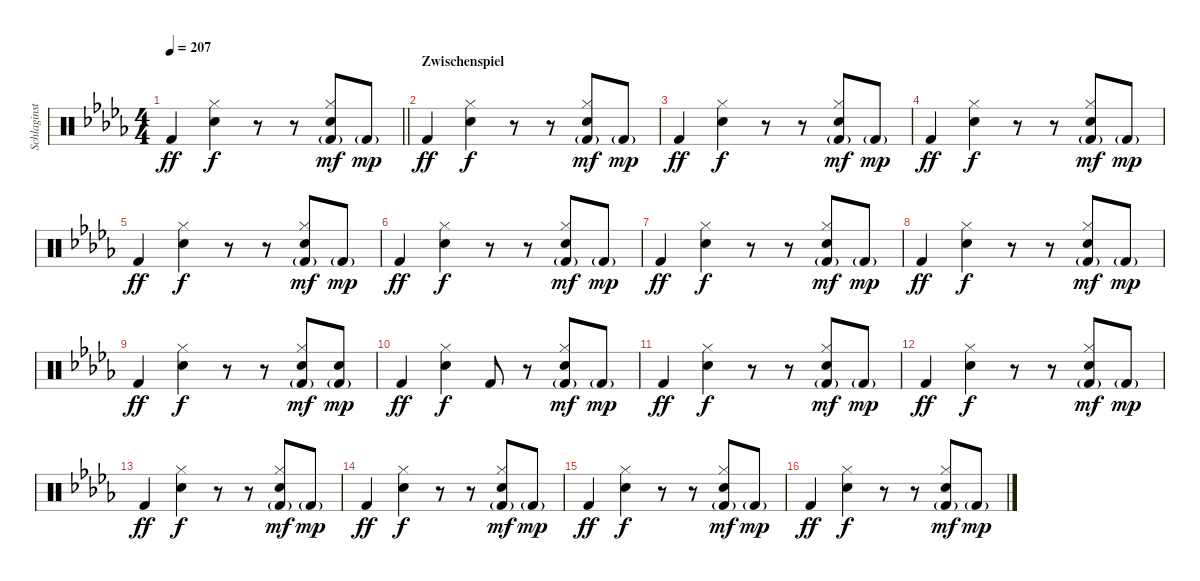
\track ("Schlaginstrumente - Auswahl" "Schlaginst") {instrument percussion}
\staff {score}
\articulation defaults
\ts (4 4)
\tempo 207
\clef neutral
\barLineRight lightlight
\ks bbminor "Kick (hit) 2".4{dy ff}
("Hi-Hat (closed)" "Snare (hit) 2").4{dy f} r.8 r.8 ("Hi-Hat (closed)" "Snare (hit) 2" "Kick (hit) 2"{g}).8{dy mf} "Kick (hit) 2"{g}.8{dy mp} |
\section ("" "Zwischenspiel")
"Kick (hit) 2".4{dy ff} ("Hi-Hat (closed)" "Snare (hit) 2").4{dy f} r.8 r.8 ("Hi-Hat (closed)" "Snare (hit) 2" "Kick (hit) 2"{g}).8{dy mf} "Kick (hit) 2"{g}.8{dy mp} |
"Kick (hit) 2".4{dy ff} ("Hi-Hat (closed)" "Snare (hit) 2").4{dy f} r.8 r.8 ("Hi-Hat (closed)" "Snare (hit) 2" "Kick (hit) 2"{g}).8{dy mf} "Kick (hit) 2"{g}.8{dy mp} |
"Kick (hit) 2".4{dy ff} ("Hi-Hat (closed)" "Snare (hit) 2").4{dy f} r.8 r.8 ("Hi-Hat (closed)" "Snare (hit) 2" "Kick (hit) 2"{g}).8{dy mf} "Kick (hit) 2"{g}.8{dy mp} |
"Kick (hit) 2".4{dy ff} ("Hi-Hat (closed)" "Snare (hit) 2").4{dy f} r.8 r.8 ("Hi-Hat (closed)" "Snare (hit) 2" "Kick (hit) 2"{g}).8{dy mf} "Kick (hit) 2"{g}.8{dy mp} |
"Kick (hit) 2".4{dy ff} ("Hi-Hat (closed)" "Snare (hit) 2").4{dy f} r.8 r.8 ("Hi-Hat (closed)" "Snare (hit) 2" "Kick (hit) 2"{g}).8{dy mf} "Kick (hit) 2"{g}.8{dy mp} |
"Kick (hit) 2".4{dy ff} ("Hi-Hat (closed)" "Snare (hit) 2").4{dy f} r.8 r.8 ("Hi-Hat (closed)" "Snare (hit) 2" "Kick (hit) 2"{g}).8{dy mf} "Kick (hit) 2"{g}.8{dy mp} |
"Kick (hit) 2".4{dy ff} ("Hi-Hat (closed)" "Snare (hit) 2").4{dy f} r.8 r.8 ("Hi-Hat (closed)" "Snare (hit) 2" "Kick (hit) 2"{g}).8{dy mf} "Kick (hit) 2"{g}.8{dy mp} |
"Kick (hit) 2".4{dy ff} ("Hi-Hat (closed)" "Snare (hit) 2").4{dy f} r.8 r.8 ("Hi-Hat (closed)" "Snare (hit) 2" "Kick (hit) 2"{g}).8{dy mf} ("Snare (hit) 2" "Kick (hit) 2"{g}).8{dy mp} |
"Kick (hit) 2".4{dy ff} ("Hi-Hat (closed)" "Snare (hit) 2").4{dy f} "Kick (hit) 2".8 r.8 ("Hi-Hat (closed)" "Snare (hit) 2" "Kick (hit) 2"{g}).8{dy mf} "Kick (hit) 2"{g}.8{dy mp} |
"Kick (hit) 2".4{dy ff} ("Hi-Hat (closed)" "Snare (hit) 2").4{dy f} r.8 r.8 ("Hi-Hat (closed)" "Snare (hit) 2" "Kick (hit) 2"{g}).8{dy mf} "Kick (hit) 2"{g}.8{dy mp} |
"Kick (hit) 2".4{dy ff} ("Hi-Hat (closed)" "Snare (hit) 2").4{dy f} r.8 r.8 ("Hi-Hat (closed)" "Snare (hit) 2" "Kick (hit) 2"{g}).8{dy mf} "Kick (hit) 2"{g}.8{dy mp} |
"Kick (hit) 2".4{dy ff} ("Hi-Hat (closed)" "Snare (hit) 2").4{dy f} r.8 r.8 ("Hi-Hat (closed)" "Snare (hit) 2" "Kick (hit) 2"{g}).8{dy mf} "Kick (hit) 2"{g}.8{dy mp} |
"Kick (hit) 2".4{dy ff} ("Hi-Hat (closed)" "Snare (hit) 2").4{dy f} r.8 r.8 ("Hi-Hat (closed)" "Snare (hit) 2" "Kick (hit) 2"{g}).8{dy mf} "Kick (hit) 2"{g}.8{dy mp} |
"Kick (hit) 2".4{dy ff} ("Hi-Hat (closed)" "Snare (hit) 2").4{dy f} r.8 r.8 ("Hi-Hat (closed)" "Snare (hit) 2" "Kick (hit) 2"{g}).8{dy mf} "Kick (hit) 2"{g}.8{dy mp} |
"Kick (hit) 2".4{dy ff} ("Hi-Hat (closed)" "Snare (hit) 2").4{dy f} r.8 r.8 ("Hi-Hat (closed)" "Snare (hit) 2" "Kick (hit) 2"{g}).8{dy mf} "Kick (hit) 2"{g}.8{dy mp}
